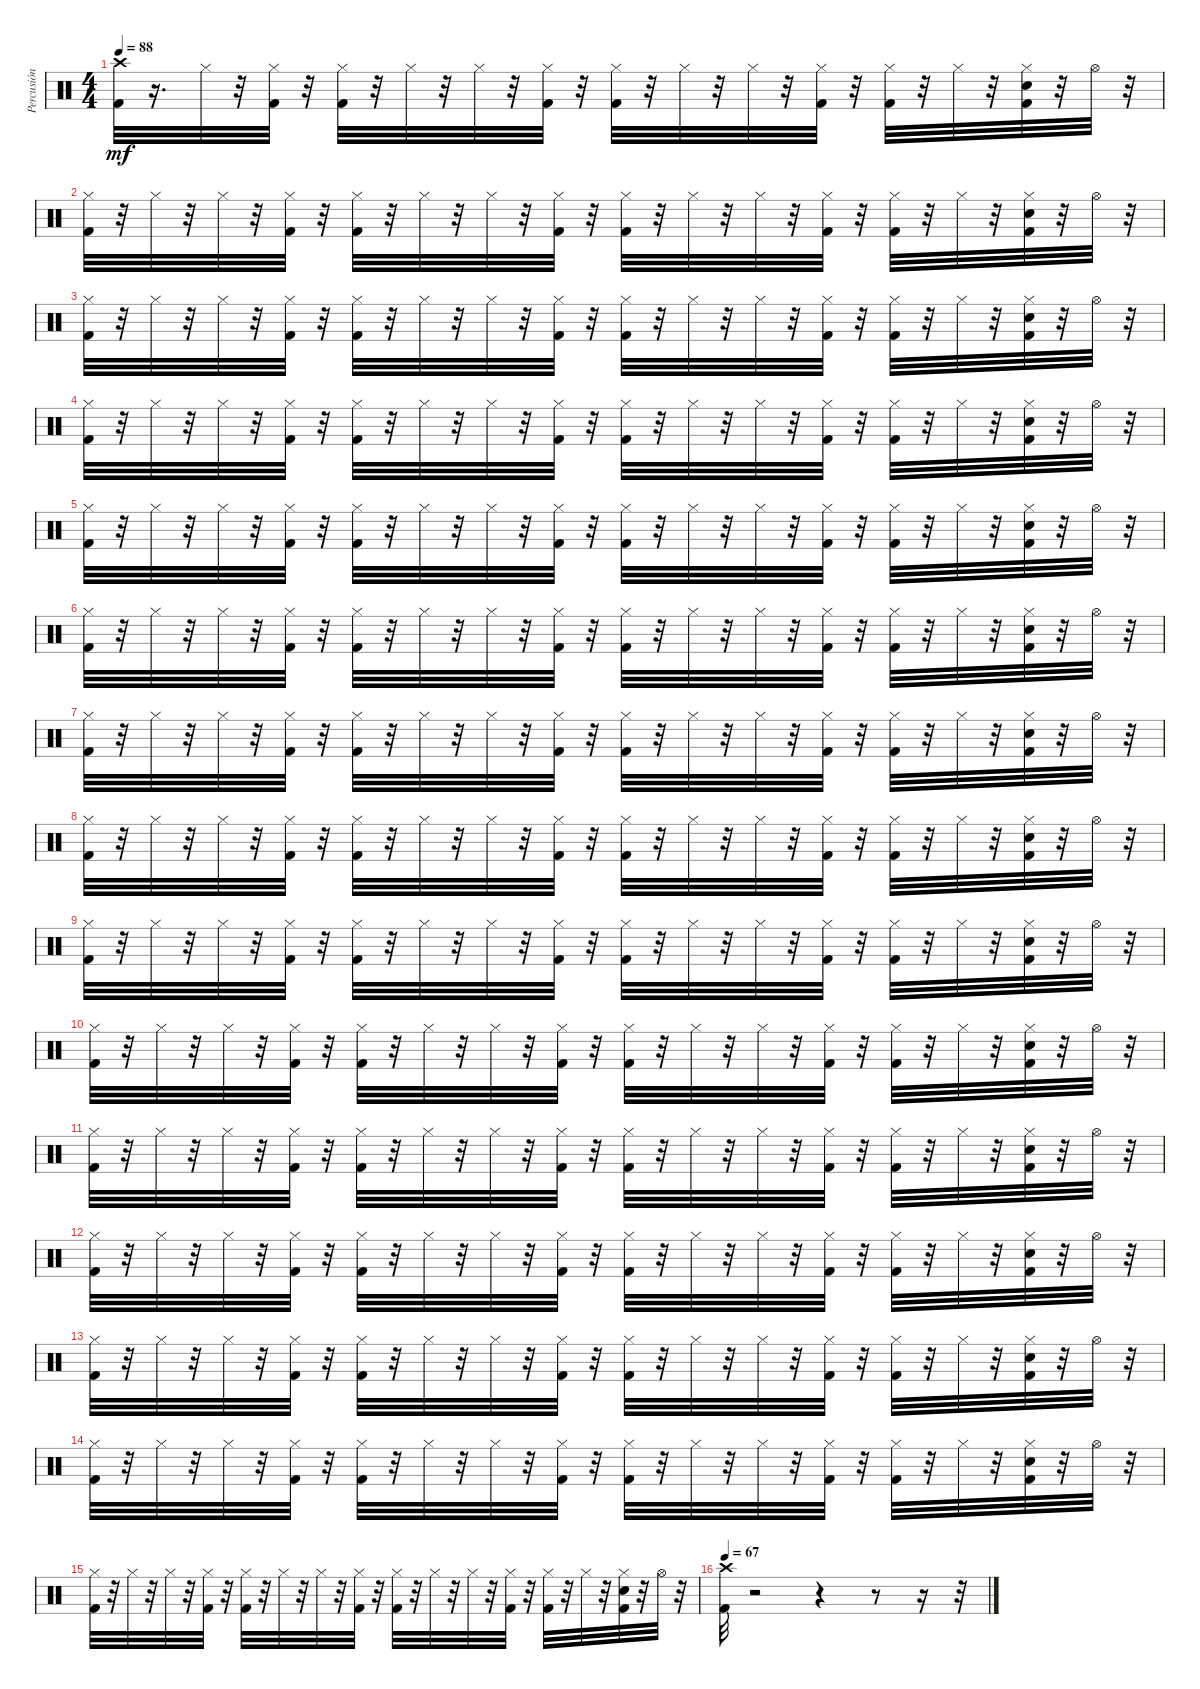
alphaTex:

\track ("Percusión" "Percusión") {instrument percussion}
\staff {score}
\articulation defaults
\ts (4 4)
\tempo 88
\clef neutral
\ks c
("Crash high (hit)" "Kick (hit) 2").32{dy mf} r.16{d} "Hi-Hat (closed)".32 r.32 ("Hi-Hat (closed)" "Kick (hit) 2").32 r.32 ("Hi-Hat (closed)" "Kick (hit) 2").32 r.32 "Hi-Hat (closed)".32 r.32 "Hi-Hat (closed)".32 r.32 ("Hi-Hat (closed)" "Kick (hit) 2").32 r.32 ("Hi-Hat (closed)" "Kick (hit) 2").32 r.32 "Hi-Hat (closed)".32 r.32 "Hi-Hat (closed)".32 r.32 ("Hi-Hat (closed)" "Kick (hit) 2").32 r.32 ("Hi-Hat (closed)" "Kick (hit) 2").32 r.32 "Hi-Hat (closed)".32 r.32 ("Hi-Hat (closed)" "Kick (hit) 2" "Hand Clap (hit)").32 r.32 "Hi-Hat (open)".32 r.32 |
("Hi-Hat (closed)" "Kick (hit) 2").32 r.32 "Hi-Hat (closed)".32 r.32 "Hi-Hat (closed)".32 r.32 ("Hi-Hat (closed)" "Kick (hit) 2").32 r.32 ("Hi-Hat (closed)" "Kick (hit) 2").32 r.32 "Hi-Hat (closed)".32 r.32 "Hi-Hat (closed)".32 r.32 ("Hi-Hat (closed)" "Kick (hit) 2").32 r.32 ("Hi-Hat (closed)" "Kick (hit) 2").32 r.32 "Hi-Hat (closed)".32 r.32 "Hi-Hat (closed)".32 r.32 ("Hi-Hat (closed)" "Kick (hit) 2").32 r.32 ("Hi-Hat (closed)" "Kick (hit) 2").32 r.32 "Hi-Hat (closed)".32 r.32 ("Hi-Hat (closed)" "Kick (hit) 2" "Hand Clap (hit)").32 r.32 "Hi-Hat (open)".32 r.32 |
("Hi-Hat (closed)" "Kick (hit) 2").32 r.32 "Hi-Hat (closed)".32 r.32 "Hi-Hat (closed)".32 r.32 ("Hi-Hat (closed)" "Kick (hit) 2").32 r.32 ("Hi-Hat (closed)" "Kick (hit) 2").32 r.32 "Hi-Hat (closed)".32 r.32 "Hi-Hat (closed)".32 r.32 ("Hi-Hat (closed)" "Kick (hit) 2").32 r.32 ("Hi-Hat (closed)" "Kick (hit) 2").32 r.32 "Hi-Hat (closed)".32 r.32 "Hi-Hat (closed)".32 r.32 ("Hi-Hat (closed)" "Kick (hit) 2").32 r.32 ("Hi-Hat (closed)" "Kick (hit) 2").32 r.32 "Hi-Hat (closed)".32 r.32 ("Hi-Hat (closed)" "Kick (hit) 2" "Hand Clap (hit)").32 r.32 "Hi-Hat (open)".32 r.32 |
("Hi-Hat (closed)" "Kick (hit) 2").32 r.32 "Hi-Hat (closed)".32 r.32 "Hi-Hat (closed)".32 r.32 ("Hi-Hat (closed)" "Kick (hit) 2").32 r.32 ("Hi-Hat (closed)" "Kick (hit) 2").32 r.32 "Hi-Hat (closed)".32 r.32 "Hi-Hat (closed)".32 r.32 ("Hi-Hat (closed)" "Kick (hit) 2").32 r.32 ("Hi-Hat (closed)" "Kick (hit) 2").32 r.32 "Hi-Hat (closed)".32 r.32 "Hi-Hat (closed)".32 r.32 ("Hi-Hat (closed)" "Kick (hit) 2").32 r.32 ("Hi-Hat (closed)" "Kick (hit) 2").32 r.32 "Hi-Hat (closed)".32 r.32 ("Hi-Hat (closed)" "Kick (hit) 2" "Hand Clap (hit)").32 r.32 "Hi-Hat (open)".32 r.32 |
("Hi-Hat (closed)" "Kick (hit) 2").32 r.32 "Hi-Hat (closed)".32 r.32 "Hi-Hat (closed)".32 r.32 ("Hi-Hat (closed)" "Kick (hit) 2").32 r.32 ("Hi-Hat (closed)" "Kick (hit) 2").32 r.32 "Hi-Hat (closed)".32 r.32 "Hi-Hat (closed)".32 r.32 ("Hi-Hat (closed)" "Kick (hit) 2").32 r.32 ("Hi-Hat (closed)" "Kick (hit) 2").32 r.32 "Hi-Hat (closed)".32 r.32 "Hi-Hat (closed)".32 r.32 ("Hi-Hat (closed)" "Kick (hit) 2").32 r.32 ("Hi-Hat (closed)" "Kick (hit) 2").32 r.32 "Hi-Hat (closed)".32 r.32 ("Hi-Hat (closed)" "Kick (hit) 2" "Hand Clap (hit)").32 r.32 "Hi-Hat (open)".32 r.32 |
("Hi-Hat (closed)" "Kick (hit) 2").32 r.32 "Hi-Hat (closed)".32 r.32 "Hi-Hat (closed)".32 r.32 ("Hi-Hat (closed)" "Kick (hit) 2").32 r.32 ("Hi-Hat (closed)" "Kick (hit) 2").32 r.32 "Hi-Hat (closed)".32 r.32 "Hi-Hat (closed)".32 r.32 ("Hi-Hat (closed)" "Kick (hit) 2").32 r.32 ("Hi-Hat (closed)" "Kick (hit) 2").32 r.32 "Hi-Hat (closed)".32 r.32 "Hi-Hat (closed)".32 r.32 ("Hi-Hat (closed)" "Kick (hit) 2").32 r.32 ("Hi-Hat (closed)" "Kick (hit) 2").32 r.32 "Hi-Hat (closed)".32 r.32 ("Hi-Hat (closed)" "Kick (hit) 2" "Hand Clap (hit)").32 r.32 "Hi-Hat (open)".32 r.32 |
("Hi-Hat (closed)" "Kick (hit) 2").32 r.32 "Hi-Hat (closed)".32 r.32 "Hi-Hat (closed)".32 r.32 ("Hi-Hat (closed)" "Kick (hit) 2").32 r.32 ("Hi-Hat (closed)" "Kick (hit) 2").32 r.32 "Hi-Hat (closed)".32 r.32 "Hi-Hat (closed)".32 r.32 ("Hi-Hat (closed)" "Kick (hit) 2").32 r.32 ("Hi-Hat (closed)" "Kick (hit) 2").32 r.32 "Hi-Hat (closed)".32 r.32 "Hi-Hat (closed)".32 r.32 ("Hi-Hat (closed)" "Kick (hit) 2").32 r.32 ("Hi-Hat (closed)" "Kick (hit) 2").32 r.32 "Hi-Hat (closed)".32 r.32 ("Hi-Hat (closed)" "Kick (hit) 2" "Hand Clap (hit)").32 r.32 "Hi-Hat (open)".32 r.32 |
("Hi-Hat (closed)" "Kick (hit) 2").32 r.32 "Hi-Hat (closed)".32 r.32 "Hi-Hat (closed)".32 r.32 ("Hi-Hat (closed)" "Kick (hit) 2").32 r.32 ("Hi-Hat (closed)" "Kick (hit) 2").32 r.32 "Hi-Hat (closed)".32 r.32 "Hi-Hat (closed)".32 r.32 ("Hi-Hat (closed)" "Kick (hit) 2").32 r.32 ("Hi-Hat (closed)" "Kick (hit) 2").32 r.32 "Hi-Hat (closed)".32 r.32 "Hi-Hat (closed)".32 r.32 ("Hi-Hat (closed)" "Kick (hit) 2").32 r.32 ("Hi-Hat (closed)" "Kick (hit) 2").32 r.32 "Hi-Hat (closed)".32 r.32 ("Hi-Hat (closed)" "Kick (hit) 2" "Hand Clap (hit)").32 r.32 "Hi-Hat (open)".32 r.32 |
("Hi-Hat (closed)" "Kick (hit) 2").32 r.32 "Hi-Hat (closed)".32 r.32 "Hi-Hat (closed)".32 r.32 ("Hi-Hat (closed)" "Kick (hit) 2").32 r.32 ("Hi-Hat (closed)" "Kick (hit) 2").32 r.32 "Hi-Hat (closed)".32 r.32 "Hi-Hat (closed)".32 r.32 ("Hi-Hat (closed)" "Kick (hit) 2").32 r.32 ("Hi-Hat (closed)" "Kick (hit) 2").32 r.32 "Hi-Hat (closed)".32 r.32 "Hi-Hat (closed)".32 r.32 ("Hi-Hat (closed)" "Kick (hit) 2").32 r.32 ("Hi-Hat (closed)" "Kick (hit) 2").32 r.32 "Hi-Hat (closed)".32 r.32 ("Hi-Hat (closed)" "Kick (hit) 2" "Hand Clap (hit)").32 r.32 "Hi-Hat (open)".32 r.32 |
("Hi-Hat (closed)" "Kick (hit) 2").32 r.32 "Hi-Hat (closed)".32 r.32 "Hi-Hat (closed)".32 r.32 ("Hi-Hat (closed)" "Kick (hit) 2").32 r.32 ("Hi-Hat (closed)" "Kick (hit) 2").32 r.32 "Hi-Hat (closed)".32 r.32 "Hi-Hat (closed)".32 r.32 ("Hi-Hat (closed)" "Kick (hit) 2").32 r.32 ("Hi-Hat (closed)" "Kick (hit) 2").32 r.32 "Hi-Hat (closed)".32 r.32 "Hi-Hat (closed)".32 r.32 ("Hi-Hat (closed)" "Kick (hit) 2").32 r.32 ("Hi-Hat (closed)" "Kick (hit) 2").32 r.32 "Hi-Hat (closed)".32 r.32 ("Hi-Hat (closed)" "Kick (hit) 2" "Hand Clap (hit)").32 r.32 "Hi-Hat (open)".32 r.32 |
("Hi-Hat (closed)" "Kick (hit) 2").32 r.32 "Hi-Hat (closed)".32 r.32 "Hi-Hat (closed)".32 r.32 ("Hi-Hat (closed)" "Kick (hit) 2").32 r.32 ("Hi-Hat (closed)" "Kick (hit) 2").32 r.32 "Hi-Hat (closed)".32 r.32 "Hi-Hat (closed)".32 r.32 ("Hi-Hat (closed)" "Kick (hit) 2").32 r.32 ("Hi-Hat (closed)" "Kick (hit) 2").32 r.32 "Hi-Hat (closed)".32 r.32 "Hi-Hat (closed)".32 r.32 ("Hi-Hat (closed)" "Kick (hit) 2").32 r.32 ("Hi-Hat (closed)" "Kick (hit) 2").32 r.32 "Hi-Hat (closed)".32 r.32 ("Hi-Hat (closed)" "Kick (hit) 2" "Hand Clap (hit)").32 r.32 "Hi-Hat (open)".32 r.32 |
("Hi-Hat (closed)" "Kick (hit) 2").32 r.32 "Hi-Hat (closed)".32 r.32 "Hi-Hat (closed)".32 r.32 ("Hi-Hat (closed)" "Kick (hit) 2").32 r.32 ("Hi-Hat (closed)" "Kick (hit) 2").32 r.32 "Hi-Hat (closed)".32 r.32 "Hi-Hat (closed)".32 r.32 ("Hi-Hat (closed)" "Kick (hit) 2").32 r.32 ("Hi-Hat (closed)" "Kick (hit) 2").32 r.32 "Hi-Hat (closed)".32 r.32 "Hi-Hat (closed)".32 r.32 ("Hi-Hat (closed)" "Kick (hit) 2").32 r.32 ("Hi-Hat (closed)" "Kick (hit) 2").32 r.32 "Hi-Hat (closed)".32 r.32 ("Hi-Hat (closed)" "Kick (hit) 2" "Hand Clap (hit)").32 r.32 "Hi-Hat (open)".32 r.32 |
("Hi-Hat (closed)" "Kick (hit) 2").32 r.32 "Hi-Hat (closed)".32 r.32 "Hi-Hat (closed)".32 r.32 ("Hi-Hat (closed)" "Kick (hit) 2").32 r.32 ("Hi-Hat (closed)" "Kick (hit) 2").32 r.32 "Hi-Hat (closed)".32 r.32 "Hi-Hat (closed)".32 r.32 ("Hi-Hat (closed)" "Kick (hit) 2").32 r.32 ("Hi-Hat (closed)" "Kick (hit) 2").32 r.32 "Hi-Hat (closed)".32 r.32 "Hi-Hat (closed)".32 r.32 ("Hi-Hat (closed)" "Kick (hit) 2").32 r.32 ("Hi-Hat (closed)" "Kick (hit) 2").32 r.32 "Hi-Hat (closed)".32 r.32 ("Hi-Hat (closed)" "Kick (hit) 2" "Hand Clap (hit)").32 r.32 "Hi-Hat (open)".32 r.32 |
("Hi-Hat (closed)" "Kick (hit) 2").32 r.32 "Hi-Hat (closed)".32 r.32 "Hi-Hat (closed)".32 r.32 ("Hi-Hat (closed)" "Kick (hit) 2").32 r.32 ("Hi-Hat (closed)" "Kick (hit) 2").32 r.32 "Hi-Hat (closed)".32 r.32 "Hi-Hat (closed)".32 r.32 ("Hi-Hat (closed)" "Kick (hit) 2").32 r.32 ("Hi-Hat (closed)" "Kick (hit) 2").32 r.32 "Hi-Hat (closed)".32 r.32 "Hi-Hat (closed)".32 r.32 ("Hi-Hat (closed)" "Kick (hit) 2").32 r.32 ("Hi-Hat (closed)" "Kick (hit) 2").32 r.32 "Hi-Hat (closed)".32 r.32 ("Hi-Hat (closed)" "Kick (hit) 2" "Hand Clap (hit)").32 r.32 "Hi-Hat (open)".32 r.32 |
("Hi-Hat (closed)" "Kick (hit) 2").32 r.32 "Hi-Hat (closed)".32 r.32 "Hi-Hat (closed)".32 r.32 ("Hi-Hat (closed)" "Kick (hit) 2").32 r.32 ("Hi-Hat (closed)" "Kick (hit) 2").32 r.32 "Hi-Hat (closed)".32 r.32 "Hi-Hat (closed)".32 r.32 ("Hi-Hat (closed)" "Kick (hit) 2").32 r.32 ("Hi-Hat (closed)" "Kick (hit) 2").32 r.32 "Hi-Hat (closed)".32 r.32 "Hi-Hat (closed)".32 r.32 ("Hi-Hat (closed)" "Kick (hit) 2").32 r.32 ("Hi-Hat (closed)" "Kick (hit) 2").32 r.32 "Hi-Hat (closed)".32 r.32 ("Hi-Hat (closed)" "Kick (hit) 2" "Hand Clap (hit)").32 r.32 "Hi-Hat (open)".32 r.32 |
\tempo 67
("Crash high (hit)" "Kick (hit) 2").32 r.2 r.4 r.8 r.16 r.32
